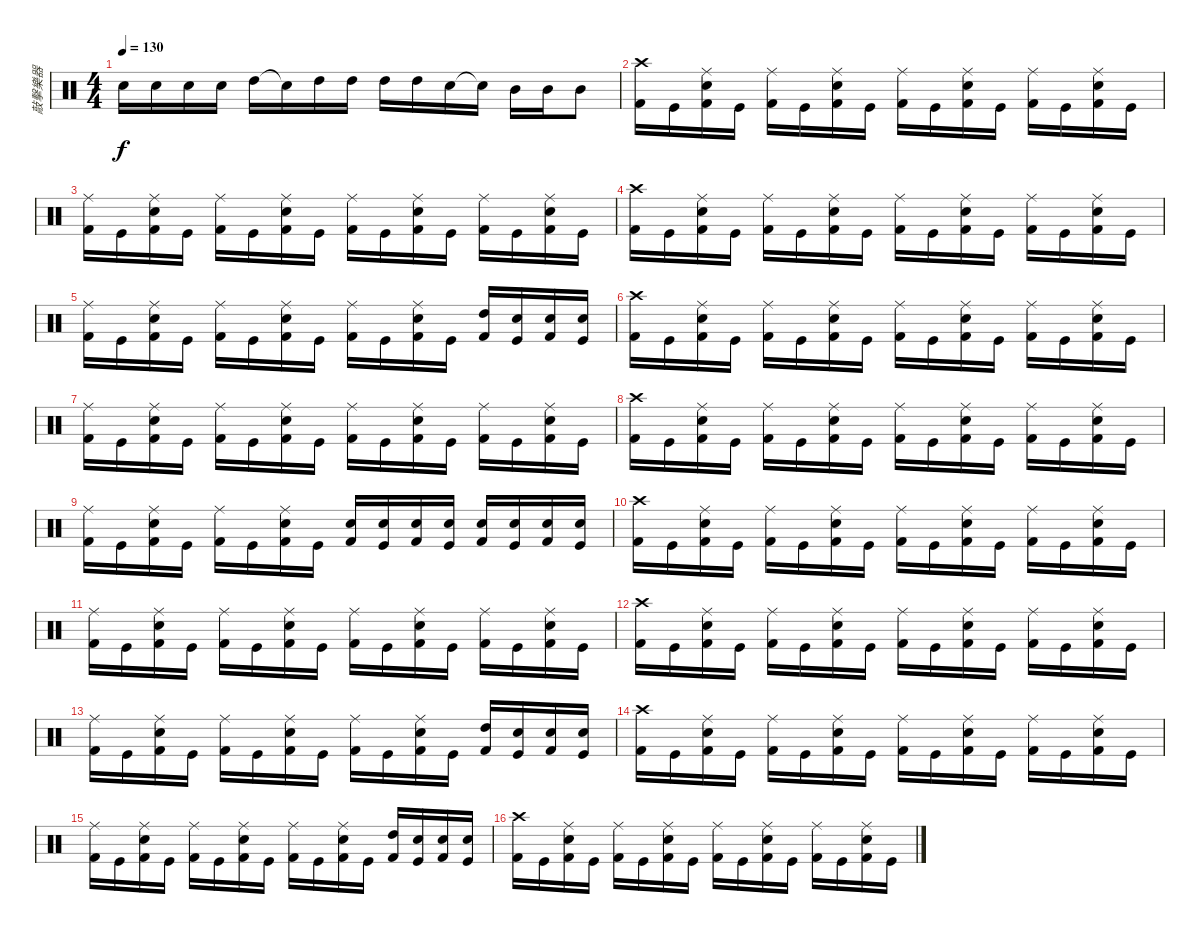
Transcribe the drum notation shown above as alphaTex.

\track ("敲擊樂器" "敲擊樂器") {instrument percussion}
\staff {score}
\articulation defaults
\ts (4 4)
\tempo 130
\clef neutral
\ks c "Snare (hit) 2".16{dy f} "Snare (hit) 2".16 "Snare (hit) 2".16 "Snare (hit) 2".16 "High Tom (hit)".16 "Snare (hit)"{t}.16 "High Tom (hit)".16 "High Tom (hit)".16 "High Tom (hit)".16 "High Tom (hit)".16 "Snare (hit) 2".16 "Snare (hit)"{t}.16 "Mid Tom (hit)".16 "Mid Tom (hit)".16 "Mid Tom (hit)".8
|
("Crash high (hit)" "Kick (hit) 2").16 "Kick (hit)".16 ("Ride (middle)" "Snare (hit) 2" "Kick (hit) 2").16 "Kick (hit)".16 ("Ride (middle)" "Kick (hit) 2").16 "Kick (hit)".16 ("Ride (middle)" "Snare (hit) 2" "Kick (hit) 2").16 "Kick (hit)".16 ("Ride (middle)" "Kick (hit) 2").16 "Kick (hit)".16 ("Ride (middle)" "Snare (hit) 2" "Kick (hit) 2").16 "Kick (hit)".16 ("Ride (middle)" "Kick (hit) 2").16 "Kick (hit)".16 ("Ride (middle)" "Snare (hit) 2" "Kick (hit) 2").16 "Kick (hit)".16 |
("Ride (middle)" "Kick (hit) 2").16 "Kick (hit)".16 ("Ride (middle)" "Snare (hit) 2" "Kick (hit) 2").16 "Kick (hit)".16 ("Ride (middle)" "Kick (hit) 2").16 "Kick (hit)".16 ("Ride (middle)" "Snare (hit) 2" "Kick (hit) 2").16 "Kick (hit)".16 ("Ride (middle)" "Kick (hit) 2").16 "Kick (hit)".16 ("Ride (middle)" "Snare (hit) 2" "Kick (hit) 2").16 "Kick (hit)".16 ("Ride (middle)" "Kick (hit) 2").16 "Kick (hit)".16 ("Ride (middle)" "Snare (hit) 2" "Kick (hit) 2").16 "Kick (hit)".16 |
("Crash high (hit)" "Kick (hit) 2").16 "Kick (hit)".16 ("Ride (middle)" "Snare (hit) 2" "Kick (hit) 2").16 "Kick (hit)".16 ("Ride (middle)" "Kick (hit) 2").16 "Kick (hit)".16 ("Ride (middle)" "Snare (hit) 2" "Kick (hit) 2").16 "Kick (hit)".16 ("Ride (middle)" "Kick (hit) 2").16 "Kick (hit)".16 ("Ride (middle)" "Snare (hit) 2" "Kick (hit) 2").16 "Kick (hit)".16 ("Ride (middle)" "Kick (hit) 2").16 "Kick (hit)".16 ("Ride (middle)" "Snare (hit) 2" "Kick (hit) 2").16 "Kick (hit)".16 |
("Ride (middle)" "Kick (hit) 2").16 "Kick (hit)".16 ("Ride (middle)" "Snare (hit) 2" "Kick (hit) 2").16 "Kick (hit)".16 ("Ride (middle)" "Kick (hit) 2").16 "Kick (hit)".16 ("Ride (middle)" "Snare (hit) 2" "Kick (hit) 2").16 "Kick (hit)".16 ("Ride (middle)" "Kick (hit) 2").16 "Kick (hit)".16 ("Ride (middle)" "Snare (hit) 2" "Kick (hit) 2").16 "Kick (hit)".16 ("High Tom (hit)" "Kick (hit) 2").16 ("Snare (hit) 2" "Kick (hit)").16 ("Snare (hit) 2" "Kick (hit) 2").16 ("Snare (hit) 2" "Kick (hit)").16 |
("Crash high (hit)" "Kick (hit) 2").16 "Kick (hit)".16 ("Ride (middle)" "Snare (hit) 2" "Kick (hit) 2").16 "Kick (hit)".16 ("Ride (middle)" "Kick (hit) 2").16 "Kick (hit)".16 ("Ride (middle)" "Snare (hit) 2" "Kick (hit) 2").16 "Kick (hit)".16 ("Ride (middle)" "Kick (hit) 2").16 "Kick (hit)".16 ("Ride (middle)" "Snare (hit) 2" "Kick (hit) 2").16 "Kick (hit)".16 ("Ride (middle)" "Kick (hit) 2").16 "Kick (hit)".16 ("Ride (middle)" "Snare (hit) 2" "Kick (hit) 2").16 "Kick (hit)".16 |
("Ride (middle)" "Kick (hit) 2").16 "Kick (hit)".16 ("Ride (middle)" "Snare (hit) 2" "Kick (hit) 2").16 "Kick (hit)".16 ("Ride (middle)" "Kick (hit) 2").16 "Kick (hit)".16 ("Ride (middle)" "Snare (hit) 2" "Kick (hit) 2").16 "Kick (hit)".16 ("Ride (middle)" "Kick (hit) 2").16 "Kick (hit)".16 ("Ride (middle)" "Snare (hit) 2" "Kick (hit) 2").16 "Kick (hit)".16 ("Ride (middle)" "Kick (hit) 2").16 "Kick (hit)".16 ("Ride (middle)" "Snare (hit) 2" "Kick (hit) 2").16 "Kick (hit)".16 |
("Crash high (hit)" "Kick (hit) 2").16 "Kick (hit)".16 ("Ride (middle)" "Snare (hit) 2" "Kick (hit) 2").16 "Kick (hit)".16 ("Ride (middle)" "Kick (hit) 2").16 "Kick (hit)".16 ("Ride (middle)" "Snare (hit) 2" "Kick (hit) 2").16 "Kick (hit)".16 ("Ride (middle)" "Kick (hit) 2").16 "Kick (hit)".16 ("Ride (middle)" "Snare (hit) 2" "Kick (hit) 2").16 "Kick (hit)".16 ("Ride (middle)" "Kick (hit) 2").16 "Kick (hit)".16 ("Ride (middle)" "Snare (hit) 2" "Kick (hit) 2").16 "Kick (hit)".16 |
("Ride (middle)" "Kick (hit) 2").16 "Kick (hit)".16 ("Ride (middle)" "Snare (hit) 2" "Kick (hit) 2").16 "Kick (hit)".16 ("Ride (middle)" "Kick (hit) 2").16 "Kick (hit)".16 ("Ride (middle)" "Snare (hit) 2" "Kick (hit) 2").16 "Kick (hit)".16 ("Snare (hit) 2" "Kick (hit) 2").16 ("Snare (hit) 2" "Kick (hit)").16 ("Snare (hit) 2" "Kick (hit) 2").16 ("Snare (hit) 2" "Kick (hit)").16 ("Snare (hit) 2" "Kick (hit) 2").16 ("Snare (hit) 2" "Kick (hit)").16 ("Snare (hit) 2" "Kick (hit) 2").16 ("Snare (hit) 2" "Kick (hit)").16 |
("Crash high (hit)" "Kick (hit) 2").16 "Kick (hit)".16 ("Ride (middle)" "Snare (hit) 2" "Kick (hit) 2").16 "Kick (hit)".16 ("Ride (middle)" "Kick (hit) 2").16 "Kick (hit)".16 ("Ride (middle)" "Snare (hit) 2" "Kick (hit) 2").16 "Kick (hit)".16 ("Ride (middle)" "Kick (hit) 2").16 "Kick (hit)".16 ("Ride (middle)" "Snare (hit) 2" "Kick (hit) 2").16 "Kick (hit)".16 ("Ride (middle)" "Kick (hit) 2").16 "Kick (hit)".16 ("Ride (middle)" "Snare (hit) 2" "Kick (hit) 2").16 "Kick (hit)".16 |
("Ride (middle)" "Kick (hit) 2").16 "Kick (hit)".16 ("Ride (middle)" "Snare (hit) 2" "Kick (hit) 2").16 "Kick (hit)".16 ("Ride (middle)" "Kick (hit) 2").16 "Kick (hit)".16 ("Ride (middle)" "Snare (hit) 2" "Kick (hit) 2").16 "Kick (hit)".16 ("Ride (middle)" "Kick (hit) 2").16 "Kick (hit)".16 ("Ride (middle)" "Snare (hit) 2" "Kick (hit) 2").16 "Kick (hit)".16 ("Ride (middle)" "Kick (hit) 2").16 "Kick (hit)".16 ("Ride (middle)" "Snare (hit) 2" "Kick (hit) 2").16 "Kick (hit)".16 |
("Crash high (hit)" "Kick (hit) 2").16 "Kick (hit)".16 ("Ride (middle)" "Snare (hit) 2" "Kick (hit) 2").16 "Kick (hit)".16 ("Ride (middle)" "Kick (hit) 2").16 "Kick (hit)".16 ("Ride (middle)" "Snare (hit) 2" "Kick (hit) 2").16 "Kick (hit)".16 ("Ride (middle)" "Kick (hit) 2").16 "Kick (hit)".16 ("Ride (middle)" "Snare (hit) 2" "Kick (hit) 2").16 "Kick (hit)".16 ("Ride (middle)" "Kick (hit) 2").16 "Kick (hit)".16 ("Ride (middle)" "Snare (hit) 2" "Kick (hit) 2").16 "Kick (hit)".16 |
("Ride (middle)" "Kick (hit) 2").16 "Kick (hit)".16 ("Ride (middle)" "Snare (hit) 2" "Kick (hit) 2").16 "Kick (hit)".16 ("Ride (middle)" "Kick (hit) 2").16 "Kick (hit)".16 ("Ride (middle)" "Snare (hit) 2" "Kick (hit) 2").16 "Kick (hit)".16 ("Ride (middle)" "Kick (hit) 2").16 "Kick (hit)".16 ("Ride (middle)" "Snare (hit) 2" "Kick (hit) 2").16 "Kick (hit)".16 ("High Tom (hit)" "Kick (hit) 2").16 ("Snare (hit) 2" "Kick (hit)").16 ("Snare (hit) 2" "Kick (hit) 2").16 ("Snare (hit) 2" "Kick (hit)").16 |
("Crash high (hit)" "Kick (hit) 2").16 "Kick (hit)".16 ("Ride (middle)" "Snare (hit) 2" "Kick (hit) 2").16 "Kick (hit)".16 ("Ride (middle)" "Kick (hit) 2").16 "Kick (hit)".16 ("Ride (middle)" "Snare (hit) 2" "Kick (hit) 2").16 "Kick (hit)".16 ("Ride (middle)" "Kick (hit) 2").16 "Kick (hit)".16 ("Ride (middle)" "Snare (hit) 2" "Kick (hit) 2").16 "Kick (hit)".16 ("Ride (middle)" "Kick (hit) 2").16 "Kick (hit)".16 ("Ride (middle)" "Snare (hit) 2" "Kick (hit) 2").16 "Kick (hit)".16 |
("Ride (middle)" "Kick (hit) 2").16 "Kick (hit)".16 ("Ride (middle)" "Snare (hit) 2" "Kick (hit) 2").16 "Kick (hit)".16 ("Ride (middle)" "Kick (hit) 2").16 "Kick (hit)".16 ("Ride (middle)" "Snare (hit) 2" "Kick (hit) 2").16 "Kick (hit)".16 ("Ride (middle)" "Kick (hit) 2").16 "Kick (hit)".16 ("Ride (middle)" "Snare (hit) 2" "Kick (hit) 2").16 "Kick (hit)".16 ("High Tom (hit)" "Kick (hit) 2").16 ("Snare (hit) 2" "Kick (hit)").16 ("Snare (hit) 2" "Kick (hit) 2").16 ("Snare (hit) 2" "Kick (hit)").16 |
("Crash high (hit)" "Kick (hit) 2").16 "Kick (hit)".16 ("Ride (middle)" "Snare (hit) 2" "Kick (hit) 2").16 "Kick (hit)".16 ("Ride (middle)" "Kick (hit) 2").16 "Kick (hit)".16 ("Ride (middle)" "Snare (hit) 2" "Kick (hit) 2").16 "Kick (hit)".16 ("Ride (middle)" "Kick (hit) 2").16 "Kick (hit)".16 ("Ride (middle)" "Snare (hit) 2" "Kick (hit) 2").16 "Kick (hit)".16 ("Ride (middle)" "Kick (hit) 2").16 "Kick (hit)".16 ("Ride (middle)" "Snare (hit) 2" "Kick (hit) 2").16 "Kick (hit)".16
